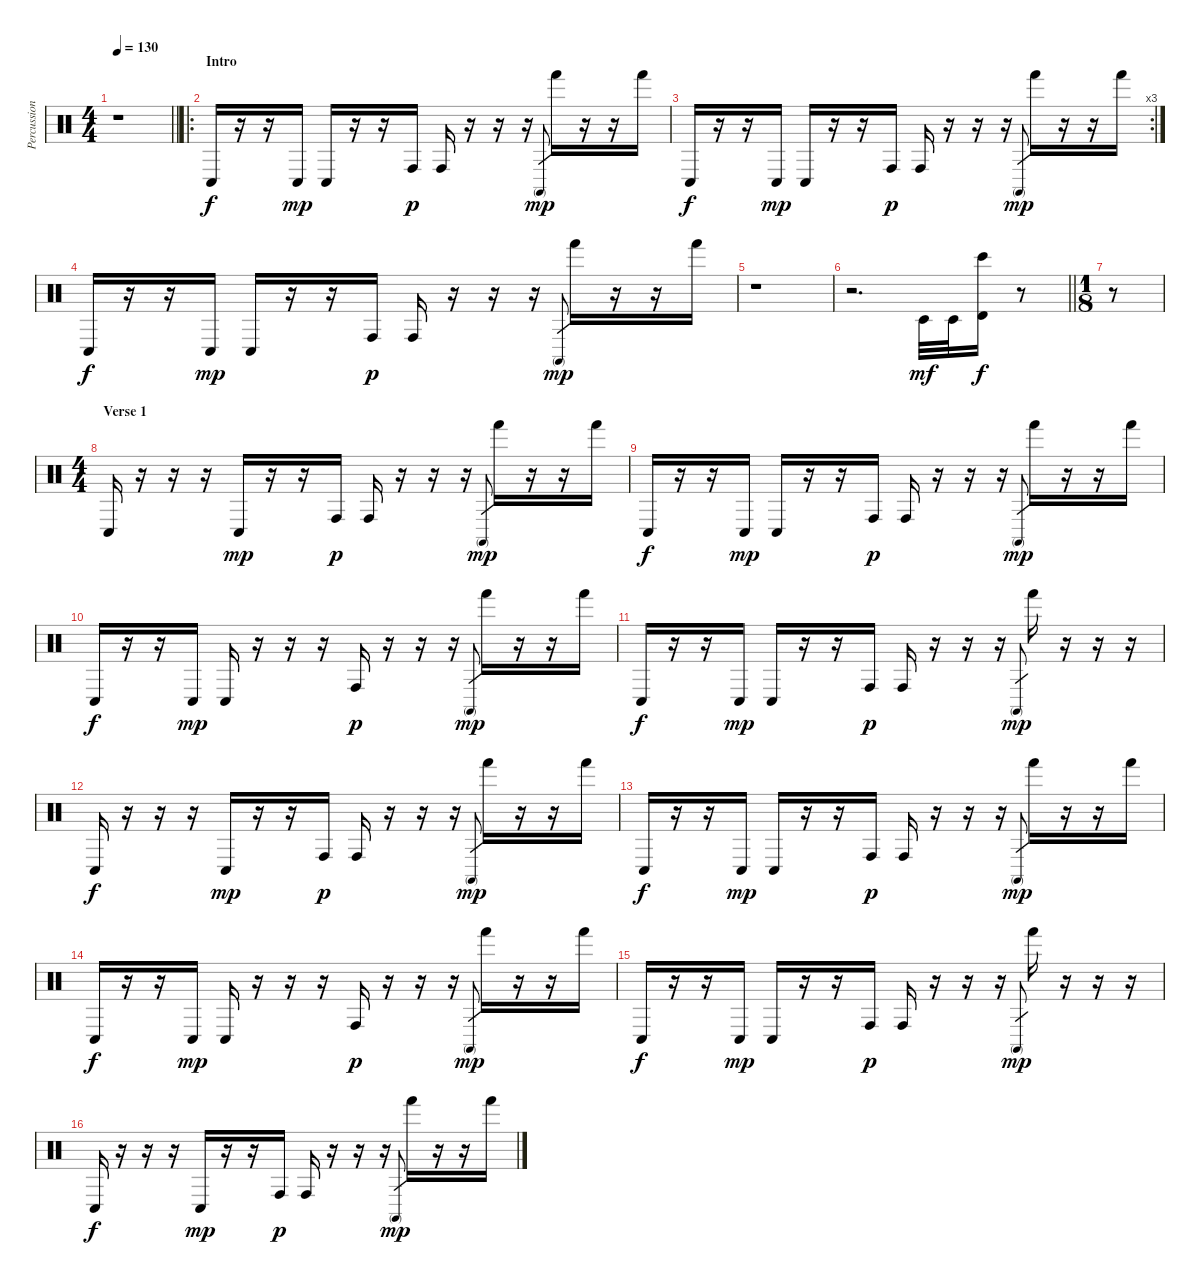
\track ("Percussions" "Percussion") {instrument percussion}
\staff {score}
\articulation defaults
\ts (4 4)
\tempo 130
\clef neutral
\barLineRight lightlight
\ks c
r.1{dy f} |
\ro
\section ("" "Intro")
"Conga low (hit)".16 r.16 r.16 "Conga low (hit)".16{dy mp} "Conga low (hit)".16 r.16 r.16 "Conga high (hit)".16{dy p} "Conga high (hit)".16 r.16 r.16 r.16 "Conga high (mute)".8{gr dy mp} "Hand (hit)".16 r.16 r.16 "Hand (hit)".16 |
\rc 3 "Conga low (hit)".16{dy f}
r.16 r.16 "Conga low (hit)".16{dy mp} "Conga low (hit)".16 r.16 r.16 "Conga high (hit)".16{dy p} "Conga high (hit)".16 r.16 r.16 r.16 "Conga high (mute)".8{gr dy mp} "Hand (hit)".16 r.16 r.16 "Hand (hit)".16 |
"Conga low (hit)".16{dy f} r.16 r.16 "Conga low (hit)".16{dy mp} "Conga low (hit)".16 r.16 r.16 "Conga high (hit)".16{dy p} "Conga high (hit)".16 r.16 r.16 r.16 "Conga high (mute)".8{gr dy mp} "Hand (hit)".16 r.16 r.16 "Hand (hit)".16 |
r.1 |
\barLineRight lightlight
r.2{d} "Timbale low (hit)".32{dy mf} "Timbale low (hit)".32 ("Bongo High (hit)" "Timbale high (hit)").16{dy f} r.8 |
\ts (1 8)
r.8 |
\ts (4 4)
\section ("" "Verse 1")
"Conga low (hit)".16 r.16 r.16 r.16 "Conga low (hit)".16{dy mp} r.16 r.16 "Conga high (hit)".16{dy p} "Conga high (hit)".16 r.16 r.16 r.16 "Conga high (mute)".8{gr dy mp} "Hand (hit)".16 r.16 r.16 "Hand (hit)".16 |
"Conga low (hit)".16{dy f} r.16 r.16 "Conga low (hit)".16{dy mp} "Conga low (hit)".16 r.16 r.16 "Conga high (hit)".16{dy p} "Conga high (hit)".16 r.16 r.16 r.16 "Conga high (mute)".8{gr dy mp} "Hand (hit)".16 r.16 r.16 "Hand (hit)".16 |
"Conga low (hit)".16{dy f} r.16 r.16 "Conga low (hit)".16{dy mp} "Conga low (hit)".16 r.16 r.16 r.16 "Conga high (hit)".16{dy p} r.16 r.16 r.16 "Conga high (mute)".8{gr dy mp} "Hand (hit)".16 r.16 r.16 "Hand (hit)".16 |
"Conga low (hit)".16{dy f} r.16 r.16 "Conga low (hit)".16{dy mp} "Conga low (hit)".16 r.16 r.16 "Conga high (hit)".16{dy p} "Conga high (hit)".16 r.16 r.16 r.16 "Conga high (mute)".8{gr dy mp} "Hand (hit)".16 r.16 r.16 r.16 |
"Conga low (hit)".16{dy f} r.16 r.16 r.16 "Conga low (hit)".16{dy mp} r.16 r.16 "Conga high (hit)".16{dy p} "Conga high (hit)".16 r.16 r.16 r.16 "Conga high (mute)".8{gr dy mp} "Hand (hit)".16 r.16 r.16 "Hand (hit)".16 |
"Conga low (hit)".16{dy f} r.16 r.16 "Conga low (hit)".16{dy mp} "Conga low (hit)".16 r.16 r.16 "Conga high (hit)".16{dy p} "Conga high (hit)".16 r.16 r.16 r.16 "Conga high (mute)".8{gr dy mp} "Hand (hit)".16 r.16 r.16 "Hand (hit)".16 |
"Conga low (hit)".16{dy f} r.16 r.16 "Conga low (hit)".16{dy mp} "Conga low (hit)".16 r.16 r.16 r.16 "Conga high (hit)".16{dy p} r.16 r.16 r.16 "Conga high (mute)".8{gr dy mp} "Hand (hit)".16 r.16 r.16 "Hand (hit)".16 |
"Conga low (hit)".16{dy f} r.16 r.16 "Conga low (hit)".16{dy mp} "Conga low (hit)".16 r.16 r.16 "Conga high (hit)".16{dy p} "Conga high (hit)".16 r.16 r.16 r.16 "Conga high (mute)".8{gr dy mp} "Hand (hit)".16 r.16 r.16 r.16 |
"Conga low (hit)".16{dy f} r.16 r.16 r.16 "Conga low (hit)".16{dy mp} r.16 r.16 "Conga high (hit)".16{dy p} "Conga high (hit)".16 r.16 r.16 r.16 "Conga high (mute)".8{gr dy mp} "Hand (hit)".16 r.16 r.16 "Hand (hit)".16
